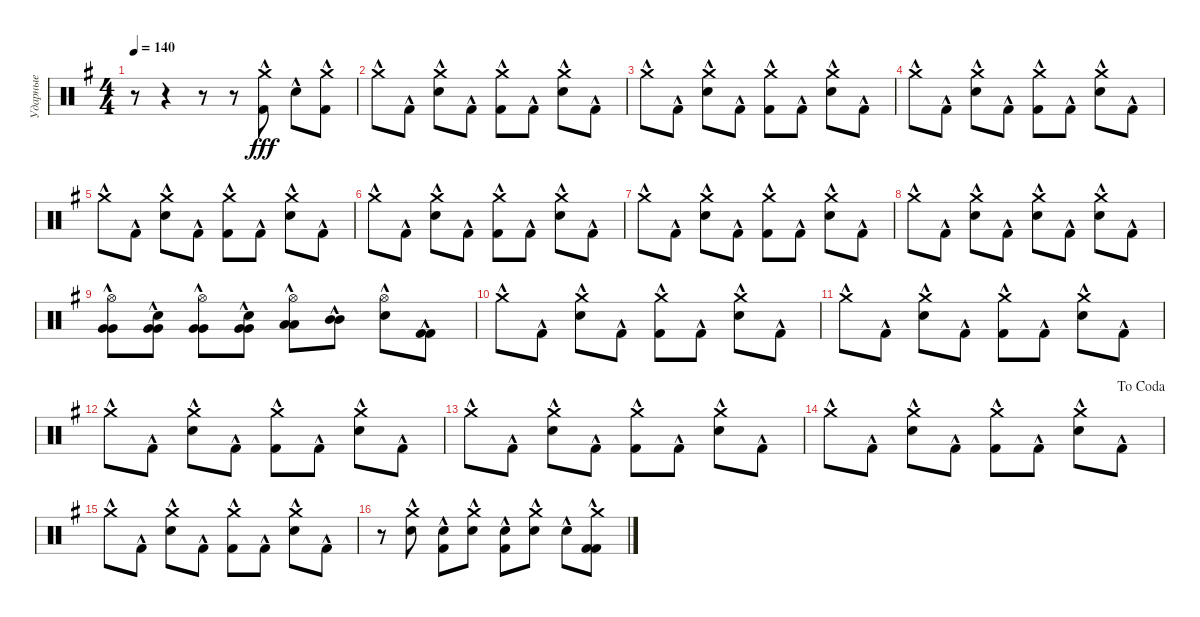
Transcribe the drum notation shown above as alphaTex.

\track ("Ударные" "Ударные") {instrument percussion}
\staff {score}
\articulation defaults
\ts (4 4)
\tempo 140
\clef neutral
\ks g
r.8{dy fff} r.4 r.8 r.8 ("Crash medium (hit)"{hac} "Kick (hit) 2"{hac}).8 "Electric Snare (hit)"{hac}.8 ("Crash medium (hit)"{hac} "Kick (hit) 2"{hac}).8 |
"Crash medium (hit)"{hac}.8 "Kick (hit) 2"{hac}.8 ("Crash medium (hit)"{hac} "Electric Snare (hit)"{hac}).8 "Kick (hit) 2"{hac}.8 ("Crash medium (hit)"{hac} "Kick (hit) 2"{hac}).8 "Kick (hit) 2"{hac}.8 ("Crash medium (hit)"{hac} "Electric Snare (hit)"{hac}).8 "Kick (hit) 2"{hac}.8 |
"Crash medium (hit)"{hac}.8 "Kick (hit) 2"{hac}.8 ("Crash medium (hit)"{hac} "Electric Snare (hit)"{hac}).8 "Kick (hit) 2"{hac}.8 ("Crash medium (hit)"{hac} "Kick (hit) 2"{hac}).8 "Kick (hit) 2"{hac}.8 ("Crash medium (hit)"{hac} "Electric Snare (hit)"{hac}).8 "Kick (hit) 2"{hac}.8 |
"Crash medium (hit)"{hac}.8 "Kick (hit) 2"{hac}.8 ("Crash medium (hit)"{hac} "Electric Snare (hit)"{hac}).8 "Kick (hit) 2"{hac}.8 ("Crash medium (hit)"{hac} "Kick (hit) 2"{hac}).8 "Kick (hit) 2"{hac}.8 ("Crash medium (hit)"{hac} "Electric Snare (hit)"{hac}).8 "Kick (hit) 2"{hac}.8 |
"Crash medium (hit)"{hac}.8 "Kick (hit) 2"{hac}.8 ("Crash medium (hit)"{hac} "Electric Snare (hit)"{hac}).8 "Kick (hit) 2"{hac}.8 ("Crash medium (hit)"{hac} "Kick (hit) 2"{hac}).8 "Kick (hit) 2"{hac}.8 ("Crash medium (hit)"{hac} "Electric Snare (hit)"{hac}).8 "Kick (hit) 2"{hac}.8 |
"Crash medium (hit)"{hac}.8 "Kick (hit) 2"{hac}.8 ("Crash medium (hit)"{hac} "Electric Snare (hit)"{hac}).8 "Kick (hit) 2"{hac}.8 ("Crash medium (hit)"{hac} "Kick (hit) 2"{hac}).8 "Kick (hit) 2"{hac}.8 ("Crash medium (hit)"{hac} "Electric Snare (hit)"{hac}).8 "Kick (hit) 2"{hac}.8 |
"Crash medium (hit)"{hac}.8 "Kick (hit) 2"{hac}.8 ("Crash medium (hit)"{hac} "Electric Snare (hit)"{hac}).8 "Kick (hit) 2"{hac}.8 ("Crash medium (hit)"{hac} "Kick (hit) 2"{hac}).8 "Kick (hit) 2"{hac}.8 ("Crash medium (hit)"{hac} "Electric Snare (hit)"{hac}).8 "Kick (hit) 2"{hac}.8 |
"Crash medium (hit)"{hac}.8 "Kick (hit) 2"{hac}.8 ("Crash medium (hit)"{hac} "Electric Snare (hit)"{hac}).8 "Kick (hit) 2"{hac}.8 ("Crash medium (hit)"{hac} "Electric Snare (hit)"{hac}).8 "Kick (hit) 2"{hac}.8 ("Crash medium (hit)"{hac} "Electric Snare (hit)"{hac}).8 "Kick (hit) 2"{hac}.8 |
("Hi-Hat (open)"{hac} "Very Low Tom (hit)"{hac} "Very Low Tom (hit)"{hac}).8 ("Electric Snare (hit)"{hac} "Very Low Tom (hit)"{hac} "Very Low Tom (hit)"{hac}).8 ("Hi-Hat (open)"{hac} "Very Low Tom (hit)"{hac} "Very Low Tom (hit)"{hac}).8 ("Electric Snare (hit)"{hac} "Very Low Tom (hit)"{hac} "Very Low Tom (hit)"{hac}).8 ("Hi-Hat (open)"{hac} "Low Tom (hit)"{hac} "Low Tom (hit)"{hac}).8 ("Mid Tom (hit)"{hac} "Mid Tom (hit)"{hac}).8 ("Hi-Hat (open)"{hac} "Electric Snare (hit)"{hac}).8 ("Kick (hit) 2"{hac} "Kick (hit) 2"{hac}).8 |
"Crash medium (hit)"{hac}.8 "Kick (hit) 2"{hac}.8 ("Crash medium (hit)"{hac} "Electric Snare (hit)"{hac}).8 "Kick (hit) 2"{hac}.8 ("Crash medium (hit)"{hac} "Kick (hit) 2"{hac}).8 "Kick (hit) 2"{hac}.8 ("Crash medium (hit)"{hac} "Electric Snare (hit)"{hac}).8 "Kick (hit) 2"{hac}.8 |
"Crash medium (hit)"{hac}.8 "Kick (hit) 2"{hac}.8 ("Crash medium (hit)"{hac} "Electric Snare (hit)"{hac}).8 "Kick (hit) 2"{hac}.8 ("Crash medium (hit)"{hac} "Kick (hit) 2"{hac}).8 "Kick (hit) 2"{hac}.8 ("Crash medium (hit)"{hac} "Electric Snare (hit)"{hac}).8 "Kick (hit) 2"{hac}.8 |
"Crash medium (hit)"{hac}.8 "Kick (hit) 2"{hac}.8 ("Crash medium (hit)"{hac} "Electric Snare (hit)"{hac}).8 "Kick (hit) 2"{hac}.8 ("Crash medium (hit)"{hac} "Kick (hit) 2"{hac}).8 "Kick (hit) 2"{hac}.8 ("Crash medium (hit)"{hac} "Electric Snare (hit)"{hac}).8 "Kick (hit) 2"{hac}.8 |
"Crash medium (hit)"{hac}.8 "Kick (hit) 2"{hac}.8 ("Crash medium (hit)"{hac} "Electric Snare (hit)"{hac}).8 "Kick (hit) 2"{hac}.8 ("Crash medium (hit)"{hac} "Kick (hit) 2"{hac}).8 "Kick (hit) 2"{hac}.8 ("Crash medium (hit)"{hac} "Electric Snare (hit)"{hac}).8 "Kick (hit) 2"{hac}.8 |
\jump dacoda "Crash medium (hit)"{hac}.8 "Kick (hit) 2"{hac}.8
("Crash medium (hit)"{hac} "Electric Snare (hit)"{hac}).8 "Kick (hit) 2"{hac}.8 ("Crash medium (hit)"{hac} "Kick (hit) 2"{hac}).8 "Kick (hit) 2"{hac}.8 ("Crash medium (hit)"{hac} "Electric Snare (hit)"{hac}).8 "Kick (hit) 2"{hac}.8 |
"Crash medium (hit)"{hac}.8 "Kick (hit) 2"{hac}.8 ("Crash medium (hit)"{hac} "Electric Snare (hit)"{hac}).8 "Kick (hit) 2"{hac}.8 ("Crash medium (hit)"{hac} "Kick (hit) 2"{hac}).8 "Kick (hit) 2"{hac}.8 ("Crash medium (hit)"{hac} "Electric Snare (hit)"{hac}).8 "Kick (hit) 2"{hac}.8 |
r.8 ("Crash medium (hit)"{hac} "Electric Snare (hit)"{hac}).8 ("Electric Snare (hit)"{hac} "Kick (hit) 2"{hac}).8 ("Crash medium (hit)"{hac} "Electric Snare (hit)"{hac}).8 ("Electric Snare (hit)"{hac} "Kick (hit) 2"{hac}).8 ("Crash medium (hit)"{hac} "Electric Snare (hit)"{hac}).8 "Electric Snare (hit)"{hac}.8 ("Crash medium (hit)"{hac} "Kick (hit) 2"{hac} "Kick (hit) 2"{hac}).8
